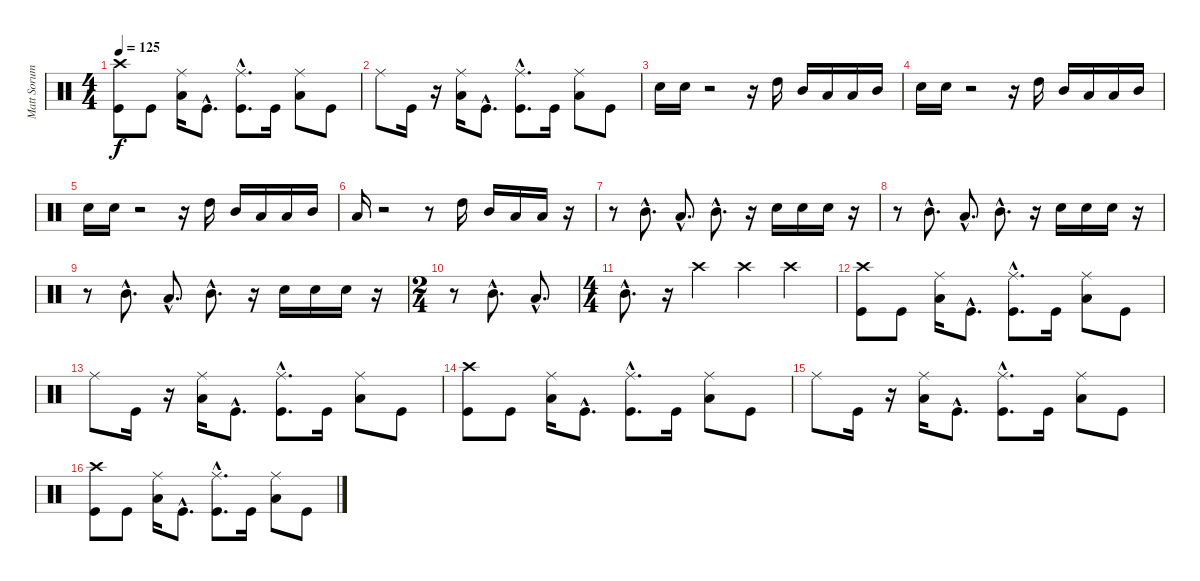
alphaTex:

\track ("Matt Sorum" "Matt Sorum") {instrument percussion}
\staff {score}
\articulation defaults
\ts (4 4)
\tempo 125
\clef neutral
\ks c
("Crash high (hit)" "Kick (hit)").8{dy f} "Kick (hit)".8 ("Low Tom (hit)" "Ride (middle)").16 "Kick (hit)"{hac}.8{d} ("Ride (middle)" "Kick (hit)"{hac}).8{d} "Kick (hit)".16 ("Low Tom (hit)" "Ride (middle)").8 "Kick (hit)".8 |
"Ride (middle)".8 "Kick (hit)".16 r.16 ("Low Tom (hit)" "Ride (middle)").16 "Kick (hit)"{hac}.8{d} ("Ride (middle)" "Kick (hit)"{hac}).8{d} "Kick (hit)".16 ("Low Tom (hit)" "Ride (middle)").8 "Kick (hit)".8 |
"Electric Snare (hit)".16 "Electric Snare (hit)".16 r.2 r.16 "High Tom (hit)".16 "Mid Tom (hit)".16 "Low Tom (hit)".16 "Low Tom (hit)".16 "Mid Tom (hit)".16 |
"Electric Snare (hit)".16 "Electric Snare (hit)".16 r.2 r.16 "High Tom (hit)".16 "Mid Tom (hit)".16 "Low Tom (hit)".16 "Low Tom (hit)".16 "Mid Tom (hit)".16 |
"Electric Snare (hit)".16 "Electric Snare (hit)".16 r.2 r.16 "High Tom (hit)".16 "Mid Tom (hit)".16 "Low Tom (hit)".16 "Low Tom (hit)".16 "Mid Tom (hit)".16 |
"Low Tom (hit)".16 r.2 r.8 "High Tom (hit)".16 "Mid Tom (hit)".16 "Low Tom (hit)".16 "Low Tom (hit)".16 r.16 |
r.8 "Mid Tom (hit)"{hac}.8{d} "Low Tom (hit)"{hac}.8{d} "Mid Tom (hit)"{hac}.8{d} r.16 "Electric Snare (hit)".16 "Electric Snare (hit)".16 "Electric Snare (hit)".16 r.16 |
r.8 "Mid Tom (hit)"{hac}.8{d} "Low Tom (hit)"{hac}.8{d} "Mid Tom (hit)"{hac}.8{d} r.16 "Electric Snare (hit)".16 "Electric Snare (hit)".16 "Electric Snare (hit)".16 r.16 |
r.8 "Mid Tom (hit)"{hac}.8{d} "Low Tom (hit)"{hac}.8{d} "Mid Tom (hit)"{hac}.8{d} r.16 "Electric Snare (hit)".16 "Electric Snare (hit)".16 "Electric Snare (hit)".16 r.16 |
\ts (2 4)
r.8 "Mid Tom (hit)"{hac}.8{d} "Low Tom (hit)"{hac}.8{d} |
\ts (4 4)
"Mid Tom (hit)"{hac}.8{d} r.16 "Crash high (hit)".4 "Crash high (hit)".4 "Crash high (hit)".4 |
("Crash high (hit)" "Kick (hit)").8 "Kick (hit)".8 ("Low Tom (hit)" "Ride (middle)").16 "Kick (hit)"{hac}.8{d} ("Ride (middle)" "Kick (hit)"{hac}).8{d} "Kick (hit)".16 ("Low Tom (hit)" "Ride (middle)").8 "Kick (hit)".8 |
"Ride (middle)".8 "Kick (hit)".16 r.16 ("Low Tom (hit)" "Ride (middle)").16 "Kick (hit)"{hac}.8{d} ("Ride (middle)" "Kick (hit)"{hac}).8{d} "Kick (hit)".16 ("Low Tom (hit)" "Ride (middle)").8 "Kick (hit)".8 |
("Crash high (hit)" "Kick (hit)").8 "Kick (hit)".8 ("Low Tom (hit)" "Ride (middle)").16 "Kick (hit)"{hac}.8{d} ("Ride (middle)" "Kick (hit)"{hac}).8{d} "Kick (hit)".16 ("Low Tom (hit)" "Ride (middle)").8 "Kick (hit)".8 |
"Ride (middle)".8 "Kick (hit)".16 r.16 ("Low Tom (hit)" "Ride (middle)").16 "Kick (hit)"{hac}.8{d} ("Ride (middle)" "Kick (hit)"{hac}).8{d} "Kick (hit)".16 ("Low Tom (hit)" "Ride (middle)").8 "Kick (hit)".8 |
("Crash high (hit)" "Kick (hit)").8 "Kick (hit)".8 ("Low Tom (hit)" "Ride (middle)").16 "Kick (hit)"{hac}.8{d} ("Ride (middle)" "Kick (hit)"{hac}).8{d} "Kick (hit)".16 ("Low Tom (hit)" "Ride (middle)").8 "Kick (hit)".8
